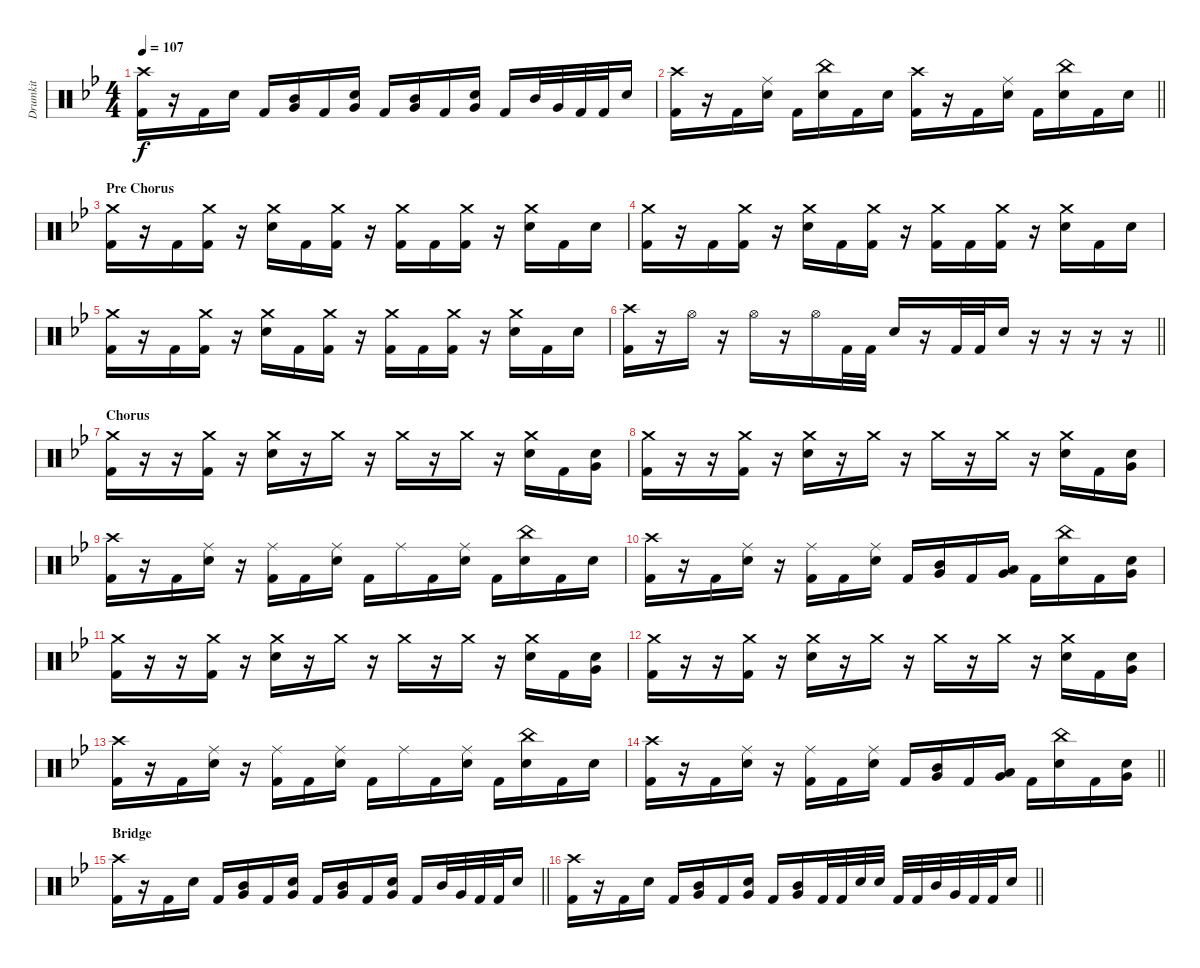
\track ("Drumkit" "Drumkit") {instrument percussion}
\staff {score}
\articulation defaults
\ts (4 4)
\tempo 107
\clef neutral
\ks bb
("Crash high (hit)" "Kick (hit) 2").16{dy f} r.16 "Kick (hit) 2".16 "Snare (hit) 2".16 "Kick (hit) 2".16 ("Mid Tom (hit)" "Very Low Tom (hit)").16 "Kick (hit) 2".16 ("Snare (hit) 2" "Very Low Tom (hit)").16 "Kick (hit) 2".16 ("Mid Tom (hit)" "Very Low Tom (hit)").16 "Kick (hit) 2".16 ("Snare (hit) 2" "Very Low Tom (hit)").16 "Kick (hit) 2".16 "Mid Tom (hit)".32 "Very Low Tom (hit)".32 "Kick (hit) 2".32 "Kick (hit) 2".32 "Snare (hit) 2".16 |
\barLineRight lightlight
("Crash high (hit)" "Kick (hit) 2").16 r.16 "Kick (hit) 2".16 ("Ride (middle)" "Snare (hit) 2").16 "Kick (hit) 2".16 ("China (hit)" "Snare (hit) 2").16 "Kick (hit) 2".16 "Snare (hit) 2".16 ("Crash high (hit)" "Kick (hit) 2").16 r.16 "Kick (hit) 2".16 ("Ride (middle)" "Snare (hit) 2").16 "Kick (hit) 2".16 ("China (hit)" "Snare (hit) 2").16 "Kick (hit) 2".16 "Snare (hit) 2".16 |
\section ("" "Pre Chorus")
("Crash medium (hit)" "Kick (hit) 2").16 r.16 "Kick (hit) 2".16 ("Crash medium (hit)" "Kick (hit) 2").16 r.16 ("Crash medium (hit)" "Snare (hit) 2").16 "Kick (hit) 2".16 ("Crash medium (hit)" "Kick (hit) 2").16 r.16 ("Crash medium (hit)" "Kick (hit) 2").16 "Kick (hit) 2".16 ("Crash medium (hit)" "Kick (hit) 2").16 r.16 ("Crash medium (hit)" "Snare (hit) 2").16 "Kick (hit) 2".16 "Snare (hit) 2".16 |
("Crash medium (hit)" "Kick (hit) 2").16 r.16 "Kick (hit) 2".16 ("Crash medium (hit)" "Kick (hit) 2").16 r.16 ("Crash medium (hit)" "Snare (hit) 2").16 "Kick (hit) 2".16 ("Crash medium (hit)" "Kick (hit) 2").16 r.16 ("Crash medium (hit)" "Kick (hit) 2").16 "Kick (hit) 2".16 ("Crash medium (hit)" "Kick (hit) 2").16 r.16 ("Crash medium (hit)" "Snare (hit) 2").16 "Kick (hit) 2".16 "Snare (hit) 2".16 |
("Crash medium (hit)" "Kick (hit) 2").16 r.16 "Kick (hit) 2".16 ("Crash medium (hit)" "Kick (hit) 2").16 r.16 ("Crash medium (hit)" "Snare (hit) 2").16 "Kick (hit) 2".16 ("Crash medium (hit)" "Kick (hit) 2").16 r.16 ("Crash medium (hit)" "Kick (hit) 2").16 "Kick (hit) 2".16 ("Crash medium (hit)" "Kick (hit) 2").16 r.16 ("Crash medium (hit)" "Snare (hit) 2").16 "Kick (hit) 2".16 "Snare (hit) 2".16 |
\barLineRight lightlight
("Crash high (hit)" "Kick (hit) 2").16 r.16 "Hi-Hat (open)".16 r.16 "Hi-Hat (open)".16 r.16 "Hi-Hat (open)".16 "Kick (hit) 2".32 "Kick (hit) 2".32 "Snare (hit) 2".16 r.16 "Kick (hit) 2".32 "Kick (hit) 2".32 "Snare (hit) 2".16 r.16 r.16 r.16 r.16 |
\section ("" "Chorus")
("Crash medium (hit)" "Kick (hit) 2").16 r.16 r.16 ("Crash medium (hit)" "Kick (hit) 2").16 r.16 ("Crash medium (hit)" "Snare (hit) 2").16 r.16 "Crash medium (hit)".16 r.16 "Crash medium (hit)".16 r.16 "Crash medium (hit)".16 r.16 ("Crash medium (hit)" "Snare (hit) 2").16 "Kick (hit) 2".16 ("Snare (hit) 2" "Very Low Tom (hit)").16 |
("Crash medium (hit)" "Kick (hit) 2").16 r.16 r.16 ("Crash medium (hit)" "Kick (hit) 2").16 r.16 ("Crash medium (hit)" "Snare (hit) 2").16 r.16 "Crash medium (hit)".16 r.16 "Crash medium (hit)".16 r.16 "Crash medium (hit)".16 r.16 ("Crash medium (hit)" "Snare (hit) 2").16 "Kick (hit) 2".16 ("Snare (hit) 2" "Very Low Tom (hit)").16 |
("Crash high (hit)" "Kick (hit) 2").16 r.16 "Kick (hit) 2".16 ("Ride (middle)" "Snare (hit) 2").16 r.16 ("Ride (middle)" "Kick (hit) 2").16 "Kick (hit) 2".16 ("Ride (middle)" "Snare (hit) 2").16 "Kick (hit) 2".16 "Ride (middle)".16 "Kick (hit) 2".16 ("Ride (middle)" "Snare (hit) 2").16 "Kick (hit) 2".16 ("China (hit)" "Snare (hit) 2").16 "Kick (hit) 2".16 "Snare (hit) 2".16 |
("Crash high (hit)" "Kick (hit) 2").16 r.16 "Kick (hit) 2".16 ("Ride (middle)" "Snare (hit) 2").16 r.16 ("Ride (middle)" "Kick (hit) 2").16 "Kick (hit) 2".16 ("Ride (middle)" "Snare (hit) 2").16 "Kick (hit) 2".16 ("Mid Tom (hit)" "Very Low Tom (hit)").16 "Kick (hit) 2".16 ("Low Tom (hit)" "Very Low Tom (hit)").16 "Kick (hit) 2".16 ("China (hit)" "Snare (hit) 2").16 "Kick (hit) 2".16 ("Snare (hit) 2" "Very Low Tom (hit)").16 |
("Crash medium (hit)" "Kick (hit) 2").16 r.16 r.16 ("Crash medium (hit)" "Kick (hit) 2").16 r.16 ("Crash medium (hit)" "Snare (hit) 2").16 r.16 "Crash medium (hit)".16 r.16 "Crash medium (hit)".16 r.16 "Crash medium (hit)".16 r.16 ("Crash medium (hit)" "Snare (hit) 2").16 "Kick (hit) 2".16 ("Snare (hit) 2" "Very Low Tom (hit)").16 |
("Crash medium (hit)" "Kick (hit) 2").16 r.16 r.16 ("Crash medium (hit)" "Kick (hit) 2").16 r.16 ("Crash medium (hit)" "Snare (hit) 2").16 r.16 "Crash medium (hit)".16 r.16 "Crash medium (hit)".16 r.16 "Crash medium (hit)".16 r.16 ("Crash medium (hit)" "Snare (hit) 2").16 "Kick (hit) 2".16 ("Snare (hit) 2" "Very Low Tom (hit)").16 |
("Crash high (hit)" "Kick (hit) 2").16 r.16 "Kick (hit) 2".16 ("Ride (middle)" "Snare (hit) 2").16 r.16 ("Ride (middle)" "Kick (hit) 2").16 "Kick (hit) 2".16 ("Ride (middle)" "Snare (hit) 2").16 "Kick (hit) 2".16 "Ride (middle)".16 "Kick (hit) 2".16 ("Ride (middle)" "Snare (hit) 2").16 "Kick (hit) 2".16 ("China (hit)" "Snare (hit) 2").16 "Kick (hit) 2".16 "Snare (hit) 2".16 |
\barLineRight lightlight
("Crash high (hit)" "Kick (hit) 2").16 r.16 "Kick (hit) 2".16 ("Ride (middle)" "Snare (hit) 2").16 r.16 ("Ride (middle)" "Kick (hit) 2").16 "Kick (hit) 2".16 ("Ride (middle)" "Snare (hit) 2").16 "Kick (hit) 2".16 ("Mid Tom (hit)" "Very Low Tom (hit)").16 "Kick (hit) 2".16 ("Low Tom (hit)" "Very Low Tom (hit)").16 "Kick (hit) 2".16 ("China (hit)" "Snare (hit) 2").16 "Kick (hit) 2".16 ("Snare (hit) 2" "Very Low Tom (hit)").16 |
\section ("" "Bridge")
\barLineRight lightlight
("Crash high (hit)" "Kick (hit) 2").16 r.16 "Kick (hit) 2".16 "Snare (hit) 2".16 "Kick (hit) 2".16 ("Mid Tom (hit)" "Very Low Tom (hit)").16 "Kick (hit) 2".16 ("Snare (hit) 2" "Very Low Tom (hit)").16 "Kick (hit) 2".16 ("Mid Tom (hit)" "Very Low Tom (hit)").16 "Kick (hit) 2".16 ("Snare (hit) 2" "Very Low Tom (hit)").16 "Kick (hit) 2".16 "Mid Tom (hit)".32 "Very Low Tom (hit)".32 "Kick (hit) 2".32 "Kick (hit) 2".32 "Snare (hit) 2".16 |
\barLineRight lightlight
("Crash high (hit)" "Kick (hit) 2").16 r.16 "Kick (hit) 2".16 "Snare (hit) 2".16 "Kick (hit) 2".16 ("Mid Tom (hit)" "Very Low Tom (hit)").16 "Kick (hit) 2".16 ("Snare (hit) 2" "Very Low Tom (hit)").16 "Kick (hit) 2".16 ("Mid Tom (hit)" "Very Low Tom (hit)").16 "Kick (hit) 2".32 "Kick (hit) 2".32 "Snare (hit) 2".32 "Snare (hit) 2".32 "Kick (hit) 2".32 "Kick (hit) 2".32 "Mid Tom (hit)".32 "Very Low Tom (hit)".32 "Kick (hit) 2".32 "Kick (hit) 2".32 "Snare (hit) 2".16
